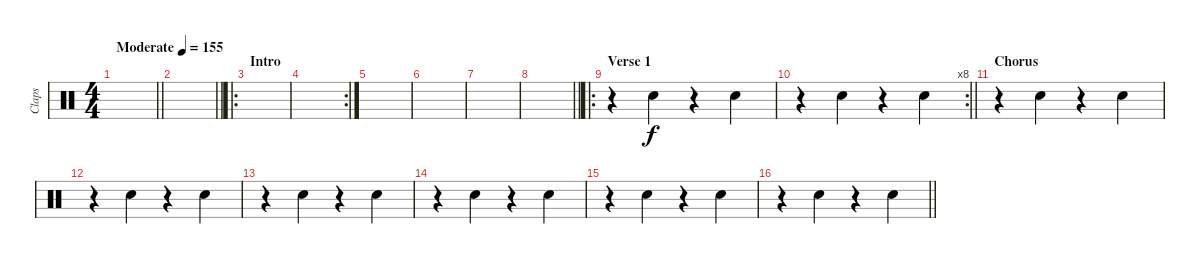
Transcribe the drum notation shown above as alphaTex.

\track ("Claps" "Claps") {instrument percussion}
\staff {score}
\articulation defaults
\ts (4 4)
\tempo (155 "Moderate")
\clef neutral
\barLineRight lightlight
\ks c
|
\barLineRight lightlight
|
\ro
\section ("" "Intro")
|
\rc 2
|
|
|
|
\barLineRight lightlight
|
\ro
\section ("" "Verse 1")
r.4 "Hand Clap (hit)".4 r.4 "Hand Clap (hit)".4 |
\rc 8
\barLineRight lightlight
r.4 "Hand Clap (hit)".4 r.4 "Hand Clap (hit)".4 |
\section ("" "Chorus")
r.4 "Hand Clap (hit)".4 r.4 "Hand Clap (hit)".4 |
r.4 "Hand Clap (hit)".4 r.4 "Hand Clap (hit)".4 |
r.4 "Hand Clap (hit)".4 r.4 "Hand Clap (hit)".4 |
r.4 "Hand Clap (hit)".4 r.4 "Hand Clap (hit)".4 |
r.4 "Hand Clap (hit)".4 r.4 "Hand Clap (hit)".4 |
\barLineRight lightlight
r.4 "Hand Clap (hit)".4 r.4 "Hand Clap (hit)".4
